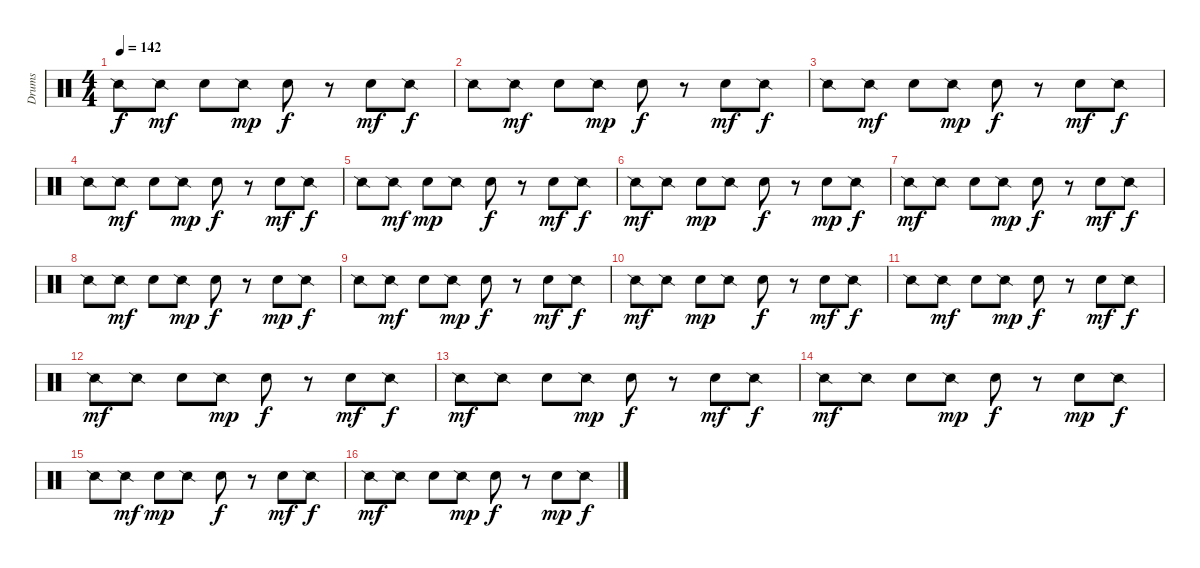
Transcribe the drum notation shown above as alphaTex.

\track ("Drums" "Drums") {instrument percussion}
\staff {score}
\articulation defaults
\ts (4 4)
\tempo 142
\clef neutral
\ks c "Snare (side stick) 2".8{dy f} "Snare (side stick) 2".8{dy mf} "Electric Snare (hit)".8 "Snare (side stick) 2".8{dy mp} "Electric Snare (hit)".8{dy f}
r.8 "Electric Snare (hit)".8{dy mf} "Snare (side stick) 2".8{dy f} |
"Snare (side stick) 2".8 "Snare (side stick) 2".8{dy mf} "Electric Snare (hit)".8 "Snare (side stick) 2".8{dy mp} "Electric Snare (hit)".8{dy f} r.8 "Electric Snare (hit)".8{dy mf} "Snare (side stick) 2".8{dy f} |
"Snare (side stick) 2".8 "Snare (side stick) 2".8{dy mf} "Electric Snare (hit)".8 "Snare (side stick) 2".8{dy mp} "Electric Snare (hit)".8{dy f} r.8 "Electric Snare (hit)".8{dy mf} "Snare (side stick) 2".8{dy f} |
"Snare (side stick) 2".8 "Snare (side stick) 2".8{dy mf} "Electric Snare (hit)".8 "Snare (side stick) 2".8{dy mp} "Electric Snare (hit)".8{dy f} r.8 "Electric Snare (hit)".8{dy mf} "Snare (side stick) 2".8{dy f} |
"Snare (side stick) 2".8 "Snare (side stick) 2".8{dy mf} "Electric Snare (hit)".8{dy mp} "Snare (side stick) 2".8 "Electric Snare (hit)".8{dy f} r.8 "Electric Snare (hit)".8{dy mf} "Snare (side stick) 2".8{dy f} |
"Snare (side stick) 2".8{dy mf} "Snare (side stick) 2".8 "Electric Snare (hit)".8{dy mp} "Snare (side stick) 2".8 "Electric Snare (hit)".8{dy f} r.8 "Electric Snare (hit)".8{dy mp} "Snare (side stick) 2".8{dy f} |
"Snare (side stick) 2".8{dy mf} "Snare (side stick) 2".8 "Electric Snare (hit)".8 "Snare (side stick) 2".8{dy mp} "Electric Snare (hit)".8{dy f} r.8 "Electric Snare (hit)".8{dy mf} "Snare (side stick) 2".8{dy f} |
"Snare (side stick) 2".8 "Snare (side stick) 2".8{dy mf} "Electric Snare (hit)".8 "Snare (side stick) 2".8{dy mp} "Electric Snare (hit)".8{dy f} r.8 "Electric Snare (hit)".8{dy mp} "Snare (side stick) 2".8{dy f} |
"Snare (side stick) 2".8 "Snare (side stick) 2".8{dy mf} "Electric Snare (hit)".8 "Snare (side stick) 2".8{dy mp} "Electric Snare (hit)".8{dy f} r.8 "Electric Snare (hit)".8{dy mf} "Snare (side stick) 2".8{dy f} |
"Snare (side stick) 2".8{dy mf} "Snare (side stick) 2".8 "Electric Snare (hit)".8{dy mp} "Snare (side stick) 2".8 "Electric Snare (hit)".8{dy f} r.8 "Electric Snare (hit)".8{dy mf} "Snare (side stick) 2".8{dy f} |
"Snare (side stick) 2".8 "Snare (side stick) 2".8{dy mf} "Electric Snare (hit)".8 "Snare (side stick) 2".8{dy mp} "Electric Snare (hit)".8{dy f} r.8 "Electric Snare (hit)".8{dy mf} "Snare (side stick) 2".8{dy f} |
"Snare (side stick) 2".8{dy mf} "Snare (side stick) 2".8 "Electric Snare (hit)".8 "Snare (side stick) 2".8{dy mp} "Electric Snare (hit)".8{dy f} r.8 "Electric Snare (hit)".8{dy mf} "Snare (side stick) 2".8{dy f} |
"Snare (side stick) 2".8{dy mf} "Snare (side stick) 2".8 "Electric Snare (hit)".8 "Snare (side stick) 2".8{dy mp} "Electric Snare (hit)".8{dy f} r.8 "Electric Snare (hit)".8{dy mf} "Snare (side stick) 2".8{dy f} |
"Snare (side stick) 2".8{dy mf} "Snare (side stick) 2".8 "Electric Snare (hit)".8 "Snare (side stick) 2".8{dy mp} "Electric Snare (hit)".8{dy f} r.8 "Electric Snare (hit)".8{dy mp} "Snare (side stick) 2".8{dy f} |
"Snare (side stick) 2".8 "Snare (side stick) 2".8{dy mf} "Electric Snare (hit)".8{dy mp} "Snare (side stick) 2".8 "Electric Snare (hit)".8{dy f} r.8 "Electric Snare (hit)".8{dy mf} "Snare (side stick) 2".8{dy f} |
"Snare (side stick) 2".8{dy mf} "Snare (side stick) 2".8 "Electric Snare (hit)".8 "Snare (side stick) 2".8{dy mp} "Electric Snare (hit)".8{dy f} r.8 "Electric Snare (hit)".8{dy mp} "Snare (side stick) 2".8{dy f}
